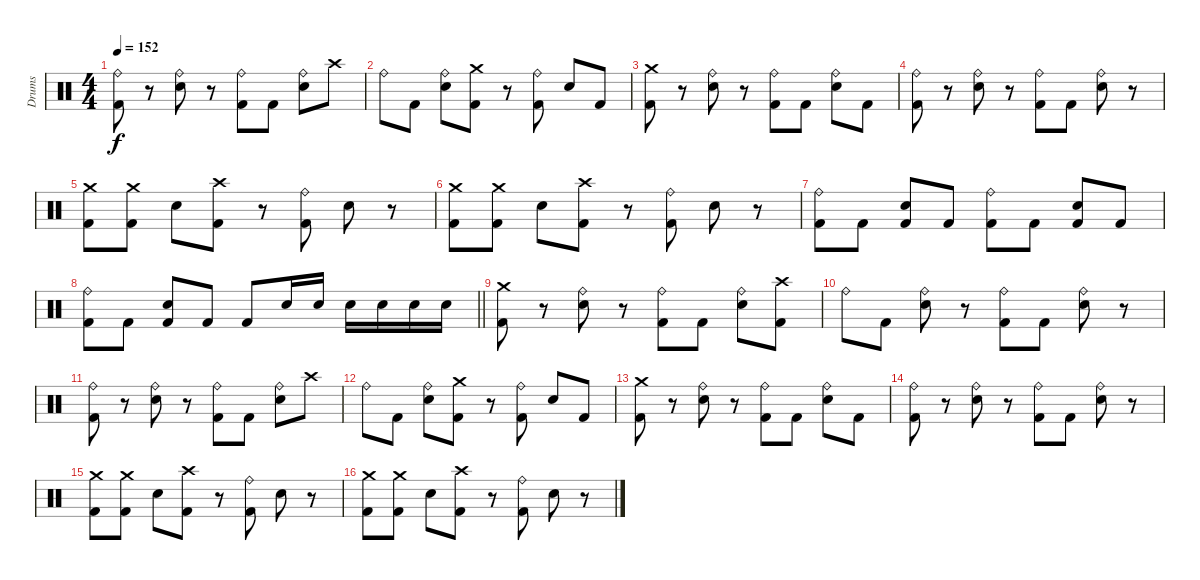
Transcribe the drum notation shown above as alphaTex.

\track ("Drums" "Drums") {instrument percussion}
\staff {score}
\articulation defaults
\ts (4 4)
\tempo 152
\clef neutral
\ks c
("Ride (bell)" "Kick (hit) 2").8{dy f} r.8 ("Snare (hit) 2" "Ride (bell)").8 r.8 ("Kick (hit) 2" "Ride (bell)").8 "Kick (hit) 2".8 ("Snare (hit) 2" "Ride (bell)").8 "Crash high (hit)".8 |
"Ride (bell)".8 "Kick (hit) 2".8 ("Snare (hit) 2" "Ride (bell)").8 ("Kick (hit) 2" "Crash medium (hit)").8 r.8 ("Kick (hit) 2" "Ride (bell)").8 "Snare (hit) 2".8 "Kick (hit) 2".8 |
("Crash medium (hit)" "Kick (hit) 2").8 r.8 ("Snare (hit) 2" "Ride (bell)").8 r.8 ("Kick (hit) 2" "Ride (bell)").8 "Kick (hit) 2".8 ("Snare (hit) 2" "Ride (bell)").8 "Kick (hit) 2".8 |
("Ride (bell)" "Kick (hit) 2").8 r.8 ("Snare (hit) 2" "Ride (bell)").8 r.8 ("Kick (hit) 2" "Ride (bell)").8 "Kick (hit) 2".8 ("Snare (hit) 2" "Ride (bell)").8 r.8 |
("Crash medium (hit)" "Kick (hit) 2").8 ("Crash medium (hit)" "Kick (hit) 2").8 "Snare (hit) 2".8 ("Crash high (hit)" "Kick (hit) 2").8 r.8 ("Kick (hit) 2" "Ride (bell)").8 "Snare (hit) 2".8 r.8 |
("Crash medium (hit)" "Kick (hit) 2").8 ("Crash medium (hit)" "Kick (hit) 2").8 "Snare (hit) 2".8 ("Crash high (hit)" "Kick (hit) 2").8 r.8 ("Kick (hit) 2" "Ride (bell)").8 "Snare (hit) 2".8 r.8 |
("Ride (bell)" "Kick (hit) 2").8 "Kick (hit) 2".8 ("Snare (hit) 2" "Kick (hit) 2").8 "Kick (hit) 2".8 ("Ride (bell)" "Kick (hit) 2").8 "Kick (hit) 2".8 ("Snare (hit) 2" "Kick (hit) 2").8 "Kick (hit) 2".8 |
\barLineRight lightlight
("Ride (bell)" "Kick (hit) 2").8 "Kick (hit) 2".8 ("Snare (hit) 2" "Kick (hit) 2").8 "Kick (hit) 2".8 "Kick (hit) 2".8 "Snare (hit) 2".16 "Snare (hit) 2".16 "Snare (hit) 2".16 "Snare (hit) 2".16 "Snare (hit) 2".16 "Snare (hit) 2".16 |
("Crash medium (hit)" "Kick (hit) 2").8 r.8 ("Snare (hit) 2" "Ride (bell)").8 r.8 ("Kick (hit) 2" "Ride (bell)").8 "Kick (hit) 2".8 ("Snare (hit) 2" "Ride (bell)").8 ("Crash high (hit)" "Kick (hit) 2").8 |
"Ride (bell)".8 "Kick (hit) 2".8 ("Snare (hit) 2" "Ride (bell)").8 r.8 ("Ride (bell)" "Kick (hit) 2").8 "Kick (hit) 2".8 ("Snare (hit) 2" "Ride (bell)").8 r.8 |
("Ride (bell)" "Kick (hit) 2").8 r.8 ("Snare (hit) 2" "Ride (bell)").8 r.8 ("Kick (hit) 2" "Ride (bell)").8 "Kick (hit) 2".8 ("Snare (hit) 2" "Ride (bell)").8 "Crash high (hit)".8 |
"Ride (bell)".8 "Kick (hit) 2".8 ("Snare (hit) 2" "Ride (bell)").8 ("Kick (hit) 2" "Crash medium (hit)").8 r.8 ("Kick (hit) 2" "Ride (bell)").8 "Snare (hit) 2".8 "Kick (hit) 2".8 |
("Crash medium (hit)" "Kick (hit) 2").8 r.8 ("Snare (hit) 2" "Ride (bell)").8 r.8 ("Kick (hit) 2" "Ride (bell)").8 "Kick (hit) 2".8 ("Snare (hit) 2" "Ride (bell)").8 "Kick (hit) 2".8 |
("Ride (bell)" "Kick (hit) 2").8 r.8 ("Snare (hit) 2" "Ride (bell)").8 r.8 ("Kick (hit) 2" "Ride (bell)").8 "Kick (hit) 2".8 ("Snare (hit) 2" "Ride (bell)").8 r.8 |
("Crash medium (hit)" "Kick (hit) 2").8 ("Crash medium (hit)" "Kick (hit) 2").8 "Snare (hit) 2".8 ("Crash high (hit)" "Kick (hit) 2").8 r.8 ("Kick (hit) 2" "Ride (bell)").8 "Snare (hit) 2".8 r.8 |
("Crash medium (hit)" "Kick (hit) 2").8 ("Crash medium (hit)" "Kick (hit) 2").8 "Snare (hit) 2".8 ("Crash high (hit)" "Kick (hit) 2").8 r.8 ("Kick (hit) 2" "Ride (bell)").8 "Snare (hit) 2".8 r.8
